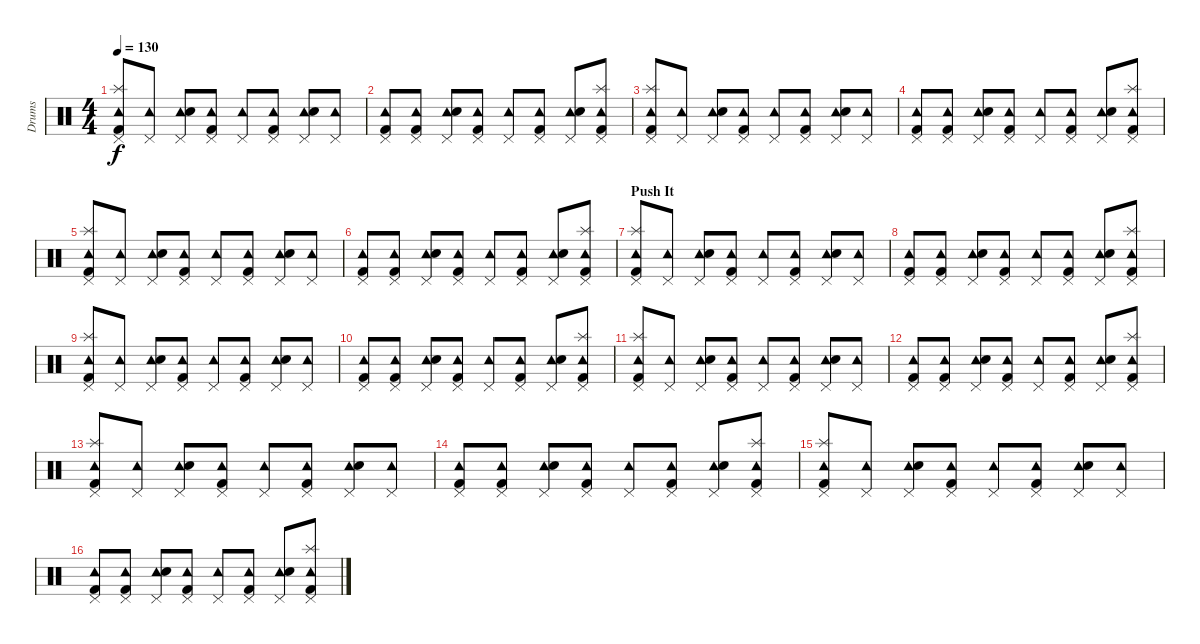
\track ("Drums" "Drums") {instrument percussion}
\staff {score}
\articulation defaults
\ts (4 4)
\tempo 130
\clef neutral
\ks c
("Tambourine (hit)" "Pedal Hi-Hat (hit)" "Splash (hit)" "Kick (hit) 2").8{dy f} ("Tambourine (hit)" "Pedal Hi-Hat (hit)").8 ("Tambourine (hit)" "Pedal Hi-Hat (hit)" "Electric Snare (hit)").8 ("Tambourine (hit)" "Pedal Hi-Hat (hit)" "Kick (hit) 2").8 ("Tambourine (hit)" "Pedal Hi-Hat (hit)").8 ("Tambourine (hit)" "Pedal Hi-Hat (hit)" "Kick (hit) 2").8 ("Tambourine (hit)" "Pedal Hi-Hat (hit)" "Electric Snare (hit)").8 ("Tambourine (hit)" "Pedal Hi-Hat (hit)").8 |
("Tambourine (hit)" "Pedal Hi-Hat (hit)" "Kick (hit) 2").8 ("Tambourine (hit)" "Pedal Hi-Hat (hit)" "Kick (hit) 2").8 ("Tambourine (hit)" "Pedal Hi-Hat (hit)" "Electric Snare (hit)").8 ("Tambourine (hit)" "Pedal Hi-Hat (hit)" "Kick (hit) 2").8 ("Tambourine (hit)" "Pedal Hi-Hat (hit)").8 ("Tambourine (hit)" "Pedal Hi-Hat (hit)" "Kick (hit) 2").8 ("Tambourine (hit)" "Pedal Hi-Hat (hit)" "Electric Snare (hit)").8 ("Tambourine (hit)" "Pedal Hi-Hat (hit)" "Splash (hit)" "Kick (hit) 2").8 |
("Tambourine (hit)" "Pedal Hi-Hat (hit)" "Splash (hit)" "Kick (hit) 2").8 ("Tambourine (hit)" "Pedal Hi-Hat (hit)").8 ("Tambourine (hit)" "Pedal Hi-Hat (hit)" "Electric Snare (hit)").8 ("Tambourine (hit)" "Pedal Hi-Hat (hit)" "Kick (hit) 2").8 ("Tambourine (hit)" "Pedal Hi-Hat (hit)").8 ("Tambourine (hit)" "Pedal Hi-Hat (hit)" "Kick (hit) 2").8 ("Tambourine (hit)" "Pedal Hi-Hat (hit)" "Electric Snare (hit)").8 ("Tambourine (hit)" "Pedal Hi-Hat (hit)").8 |
("Tambourine (hit)" "Pedal Hi-Hat (hit)" "Kick (hit) 2").8 ("Tambourine (hit)" "Pedal Hi-Hat (hit)" "Kick (hit) 2").8 ("Tambourine (hit)" "Pedal Hi-Hat (hit)" "Electric Snare (hit)").8 ("Tambourine (hit)" "Pedal Hi-Hat (hit)" "Kick (hit) 2").8 ("Tambourine (hit)" "Pedal Hi-Hat (hit)").8 ("Tambourine (hit)" "Pedal Hi-Hat (hit)" "Kick (hit) 2").8 ("Tambourine (hit)" "Pedal Hi-Hat (hit)" "Electric Snare (hit)").8 ("Tambourine (hit)" "Pedal Hi-Hat (hit)" "Splash (hit)" "Kick (hit) 2").8 |
("Tambourine (hit)" "Pedal Hi-Hat (hit)" "Splash (hit)" "Kick (hit) 2").8 ("Tambourine (hit)" "Pedal Hi-Hat (hit)").8 ("Tambourine (hit)" "Pedal Hi-Hat (hit)" "Electric Snare (hit)").8 ("Tambourine (hit)" "Pedal Hi-Hat (hit)" "Kick (hit) 2").8 ("Tambourine (hit)" "Pedal Hi-Hat (hit)").8 ("Tambourine (hit)" "Pedal Hi-Hat (hit)" "Kick (hit) 2").8 ("Tambourine (hit)" "Pedal Hi-Hat (hit)" "Electric Snare (hit)").8 ("Tambourine (hit)" "Pedal Hi-Hat (hit)").8 |
("Tambourine (hit)" "Pedal Hi-Hat (hit)" "Kick (hit) 2").8 ("Tambourine (hit)" "Pedal Hi-Hat (hit)" "Kick (hit) 2").8 ("Tambourine (hit)" "Pedal Hi-Hat (hit)" "Electric Snare (hit)").8 ("Tambourine (hit)" "Pedal Hi-Hat (hit)" "Kick (hit) 2").8 ("Tambourine (hit)" "Pedal Hi-Hat (hit)").8 ("Tambourine (hit)" "Pedal Hi-Hat (hit)" "Kick (hit) 2").8 ("Tambourine (hit)" "Pedal Hi-Hat (hit)" "Electric Snare (hit)").8 ("Tambourine (hit)" "Pedal Hi-Hat (hit)" "Splash (hit)" "Kick (hit) 2").8 |
\section ("" "Push It")
("Tambourine (hit)" "Pedal Hi-Hat (hit)" "Splash (hit)" "Kick (hit) 2").8 ("Tambourine (hit)" "Pedal Hi-Hat (hit)").8 ("Tambourine (hit)" "Pedal Hi-Hat (hit)" "Electric Snare (hit)").8 ("Tambourine (hit)" "Pedal Hi-Hat (hit)" "Kick (hit) 2").8 ("Tambourine (hit)" "Pedal Hi-Hat (hit)").8 ("Tambourine (hit)" "Pedal Hi-Hat (hit)" "Kick (hit) 2").8 ("Tambourine (hit)" "Pedal Hi-Hat (hit)" "Electric Snare (hit)").8 ("Tambourine (hit)" "Pedal Hi-Hat (hit)").8 |
("Tambourine (hit)" "Pedal Hi-Hat (hit)" "Kick (hit) 2").8 ("Tambourine (hit)" "Pedal Hi-Hat (hit)" "Kick (hit) 2").8 ("Tambourine (hit)" "Pedal Hi-Hat (hit)" "Electric Snare (hit)").8 ("Tambourine (hit)" "Pedal Hi-Hat (hit)" "Kick (hit) 2").8 ("Tambourine (hit)" "Pedal Hi-Hat (hit)").8 ("Tambourine (hit)" "Pedal Hi-Hat (hit)" "Kick (hit) 2").8 ("Tambourine (hit)" "Pedal Hi-Hat (hit)" "Electric Snare (hit)").8 ("Tambourine (hit)" "Pedal Hi-Hat (hit)" "Splash (hit)" "Kick (hit) 2").8 |
("Tambourine (hit)" "Pedal Hi-Hat (hit)" "Splash (hit)" "Kick (hit) 2").8 ("Tambourine (hit)" "Pedal Hi-Hat (hit)").8 ("Tambourine (hit)" "Pedal Hi-Hat (hit)" "Electric Snare (hit)").8 ("Tambourine (hit)" "Pedal Hi-Hat (hit)" "Kick (hit) 2").8 ("Tambourine (hit)" "Pedal Hi-Hat (hit)").8 ("Tambourine (hit)" "Pedal Hi-Hat (hit)" "Kick (hit) 2").8 ("Tambourine (hit)" "Pedal Hi-Hat (hit)" "Electric Snare (hit)").8 ("Tambourine (hit)" "Pedal Hi-Hat (hit)").8 |
("Tambourine (hit)" "Pedal Hi-Hat (hit)" "Kick (hit) 2").8 ("Tambourine (hit)" "Pedal Hi-Hat (hit)" "Kick (hit) 2").8 ("Tambourine (hit)" "Pedal Hi-Hat (hit)" "Electric Snare (hit)").8 ("Tambourine (hit)" "Pedal Hi-Hat (hit)" "Kick (hit) 2").8 ("Tambourine (hit)" "Pedal Hi-Hat (hit)").8 ("Tambourine (hit)" "Pedal Hi-Hat (hit)" "Kick (hit) 2").8 ("Tambourine (hit)" "Pedal Hi-Hat (hit)" "Electric Snare (hit)").8 ("Tambourine (hit)" "Pedal Hi-Hat (hit)" "Splash (hit)" "Kick (hit) 2").8 |
("Tambourine (hit)" "Pedal Hi-Hat (hit)" "Splash (hit)" "Kick (hit) 2").8 ("Tambourine (hit)" "Pedal Hi-Hat (hit)").8 ("Tambourine (hit)" "Pedal Hi-Hat (hit)" "Electric Snare (hit)").8 ("Tambourine (hit)" "Pedal Hi-Hat (hit)" "Kick (hit) 2").8 ("Tambourine (hit)" "Pedal Hi-Hat (hit)").8 ("Tambourine (hit)" "Pedal Hi-Hat (hit)" "Kick (hit) 2").8 ("Tambourine (hit)" "Pedal Hi-Hat (hit)" "Electric Snare (hit)").8 ("Tambourine (hit)" "Pedal Hi-Hat (hit)").8 |
("Tambourine (hit)" "Pedal Hi-Hat (hit)" "Kick (hit) 2").8 ("Tambourine (hit)" "Pedal Hi-Hat (hit)" "Kick (hit) 2").8 ("Tambourine (hit)" "Pedal Hi-Hat (hit)" "Electric Snare (hit)").8 ("Tambourine (hit)" "Pedal Hi-Hat (hit)" "Kick (hit) 2").8 ("Tambourine (hit)" "Pedal Hi-Hat (hit)").8 ("Tambourine (hit)" "Pedal Hi-Hat (hit)" "Kick (hit) 2").8 ("Tambourine (hit)" "Pedal Hi-Hat (hit)" "Electric Snare (hit)").8 ("Tambourine (hit)" "Pedal Hi-Hat (hit)" "Splash (hit)" "Kick (hit) 2").8 |
("Tambourine (hit)" "Pedal Hi-Hat (hit)" "Splash (hit)" "Kick (hit) 2").8 ("Tambourine (hit)" "Pedal Hi-Hat (hit)").8 ("Tambourine (hit)" "Pedal Hi-Hat (hit)" "Electric Snare (hit)").8 ("Tambourine (hit)" "Pedal Hi-Hat (hit)" "Kick (hit) 2").8 ("Tambourine (hit)" "Pedal Hi-Hat (hit)").8 ("Tambourine (hit)" "Pedal Hi-Hat (hit)" "Kick (hit) 2").8 ("Tambourine (hit)" "Pedal Hi-Hat (hit)" "Electric Snare (hit)").8 ("Tambourine (hit)" "Pedal Hi-Hat (hit)").8 |
("Tambourine (hit)" "Pedal Hi-Hat (hit)" "Kick (hit) 2").8 ("Tambourine (hit)" "Pedal Hi-Hat (hit)" "Kick (hit) 2").8 ("Tambourine (hit)" "Pedal Hi-Hat (hit)" "Electric Snare (hit)").8 ("Tambourine (hit)" "Pedal Hi-Hat (hit)" "Kick (hit) 2").8 ("Tambourine (hit)" "Pedal Hi-Hat (hit)").8 ("Tambourine (hit)" "Pedal Hi-Hat (hit)" "Kick (hit) 2").8 ("Tambourine (hit)" "Pedal Hi-Hat (hit)" "Electric Snare (hit)").8 ("Tambourine (hit)" "Pedal Hi-Hat (hit)" "Splash (hit)" "Kick (hit) 2").8 |
("Tambourine (hit)" "Pedal Hi-Hat (hit)" "Splash (hit)" "Kick (hit) 2").8 ("Tambourine (hit)" "Pedal Hi-Hat (hit)").8 ("Tambourine (hit)" "Pedal Hi-Hat (hit)" "Electric Snare (hit)").8 ("Tambourine (hit)" "Pedal Hi-Hat (hit)" "Kick (hit) 2").8 ("Tambourine (hit)" "Pedal Hi-Hat (hit)").8 ("Tambourine (hit)" "Pedal Hi-Hat (hit)" "Kick (hit) 2").8 ("Tambourine (hit)" "Pedal Hi-Hat (hit)" "Electric Snare (hit)").8 ("Tambourine (hit)" "Pedal Hi-Hat (hit)").8 |
("Tambourine (hit)" "Pedal Hi-Hat (hit)" "Kick (hit) 2").8 ("Tambourine (hit)" "Pedal Hi-Hat (hit)" "Kick (hit) 2").8 ("Tambourine (hit)" "Pedal Hi-Hat (hit)" "Electric Snare (hit)").8 ("Tambourine (hit)" "Pedal Hi-Hat (hit)" "Kick (hit) 2").8 ("Tambourine (hit)" "Pedal Hi-Hat (hit)").8 ("Tambourine (hit)" "Pedal Hi-Hat (hit)" "Kick (hit) 2").8 ("Tambourine (hit)" "Pedal Hi-Hat (hit)" "Electric Snare (hit)").8 ("Tambourine (hit)" "Pedal Hi-Hat (hit)" "Splash (hit)" "Kick (hit) 2").8
